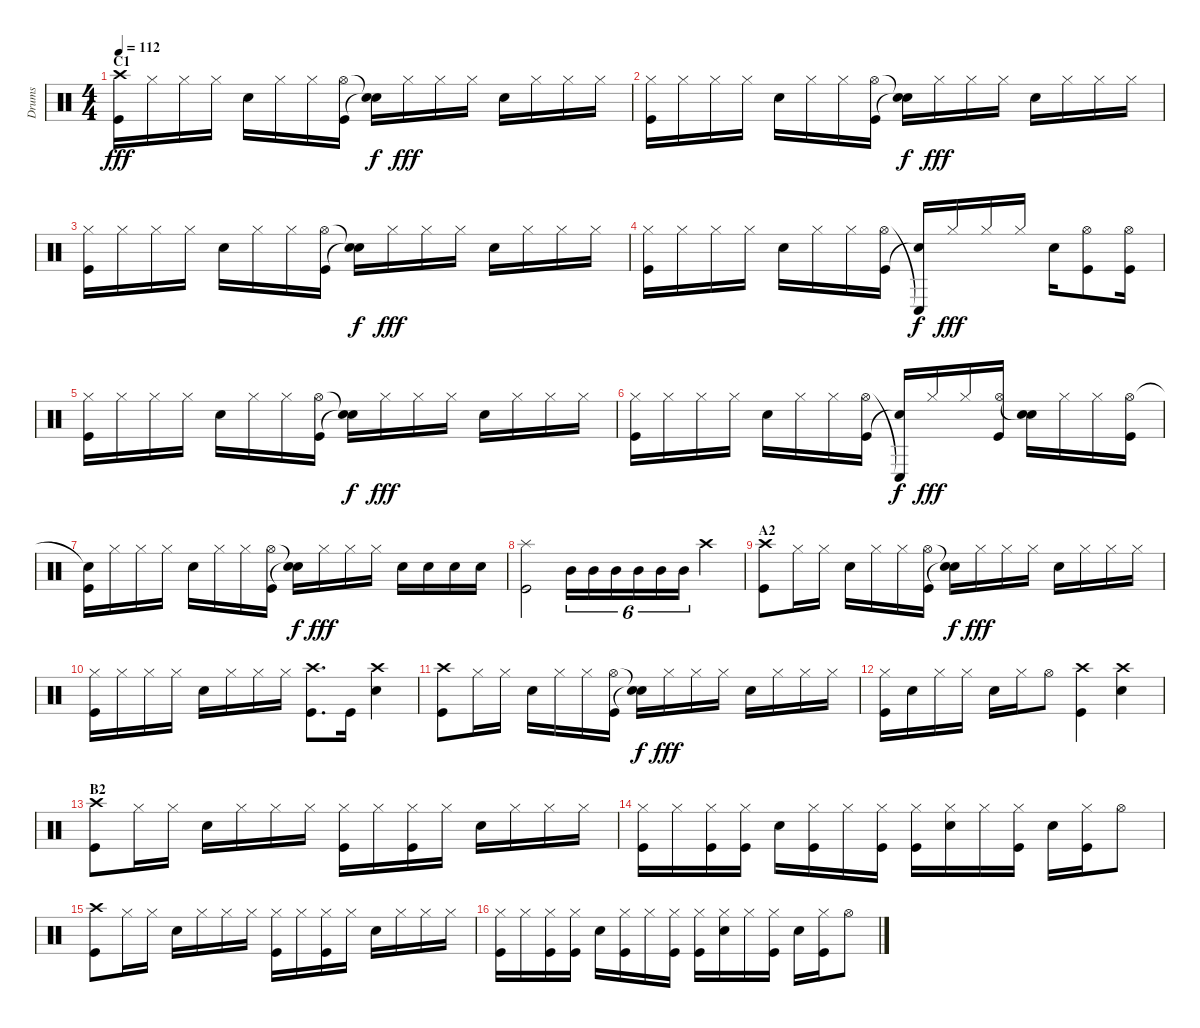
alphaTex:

\track ("Drums" "Drums") {instrument percussion}
\staff {score}
\articulation defaults
\ts (4 4)
\section ("" "C1")
\tempo 112
\clef neutral
\ks c
("Crash high (hit)" "Kick (hit)").16{dy fff} "Hi-Hat (closed)".16 "Hi-Hat (closed)".16 "Hi-Hat (closed)".16 "Snare (hit) 2".16 "Hi-Hat (closed)".16 "Hi-Hat (closed)".16 ("Hi-Hat (open)" "Kick (hit)").16 ("Snare (hit)"{t} "Snare (hit)"{t}).16{dy f} "Hi-Hat (closed)".16{dy fff} "Hi-Hat (closed)".16 "Hi-Hat (closed)".16 "Snare (hit) 2".16 "Hi-Hat (closed)".16 "Hi-Hat (closed)".16 "Hi-Hat (closed)".16 |
("Hi-Hat (closed)" "Kick (hit)").16 "Hi-Hat (closed)".16 "Hi-Hat (closed)".16 "Hi-Hat (closed)".16 "Snare (hit) 2".16 "Hi-Hat (closed)".16 "Hi-Hat (closed)".16 ("Hi-Hat (open)" "Kick (hit)").16 ("Snare (hit)"{t} "Snare (hit)"{t}).16{dy f} "Hi-Hat (closed)".16{dy fff} "Hi-Hat (closed)".16 "Hi-Hat (closed)".16 "Snare (hit) 2".16 "Hi-Hat (closed)".16 "Hi-Hat (closed)".16 "Hi-Hat (closed)".16 |
("Hi-Hat (closed)" "Kick (hit)").16 "Hi-Hat (closed)".16 "Hi-Hat (closed)".16 "Hi-Hat (closed)".16 "Snare (hit) 2".16 "Hi-Hat (closed)".16 "Hi-Hat (closed)".16 ("Hi-Hat (open)" "Kick (hit)").16 ("Snare (hit)"{t} "Snare (hit)"{t}).16{dy f} "Hi-Hat (closed)".16{dy fff} "Hi-Hat (closed)".16 "Hi-Hat (closed)".16 "Snare (hit) 2".16 "Hi-Hat (closed)".16 "Hi-Hat (closed)".16 "Hi-Hat (closed)".16 |
("Hi-Hat (closed)" "Kick (hit)").16 "Hi-Hat (closed)".16 "Hi-Hat (closed)".16 "Hi-Hat (closed)".16 "Snare (hit) 2".16 "Hi-Hat (closed)".16 "Hi-Hat (closed)".16 ("Hi-Hat (open)" "Kick (hit)").16 ("Conga low (hit)"{t} "Snare (hit)"{t}).16{dy f} "Hi-Hat (closed)".16{dy fff} "Hi-Hat (closed)".16 "Hi-Hat (closed)".16 "Snare (hit) 2".16 ("Hi-Hat (open)" "Kick (hit)").8 ("Hi-Hat (open)" "Kick (hit)").16 |
("Hi-Hat (closed)" "Kick (hit)").16 "Hi-Hat (closed)".16 "Hi-Hat (closed)".16 "Hi-Hat (closed)".16 "Snare (hit) 2".16 "Hi-Hat (closed)".16 "Hi-Hat (closed)".16 ("Hi-Hat (open)" "Kick (hit)").16 ("Snare (hit)"{t} "Snare (hit)"{t}).16{dy f} "Hi-Hat (closed)".16{dy fff} "Hi-Hat (closed)".16 "Hi-Hat (closed)".16 "Snare (hit) 2".16 "Hi-Hat (closed)".16 "Hi-Hat (closed)".16 "Hi-Hat (closed)".16 |
("Hi-Hat (closed)" "Kick (hit)").16 "Hi-Hat (closed)".16 "Hi-Hat (closed)".16 "Hi-Hat (closed)".16 "Snare (hit) 2".16 "Hi-Hat (closed)".16 "Hi-Hat (closed)".16 ("Hi-Hat (open)" "Kick (hit)").16 ("Conga low (hit)"{t} "Snare (hit)"{t}).16{dy f} "Hi-Hat (closed)".16{dy fff} "Hi-Hat (closed)".16 ("Hi-Hat (open)" "Kick (hit)").16 ("Snare (hit)"{t} "Snare (hit) 2").16 "Hi-Hat (closed)".16 "Hi-Hat (closed)".16 ("Hi-Hat (open)" "Kick (hit)").16 |
("Snare (hit)"{t} "Kick (hit)").16 "Hi-Hat (closed)".16 "Hi-Hat (closed)".16 "Hi-Hat (closed)".16 "Snare (hit) 2".16 "Hi-Hat (closed)".16 "Hi-Hat (closed)".16 ("Hi-Hat (open)" "Kick (hit)").16 ("Snare (hit)"{t} "Snare (hit)"{t}).16{dy f} "Hi-Hat (closed)".16{dy fff} "Hi-Hat (closed)".16 "Hi-Hat (closed)".16 "Snare (hit) 2".16 "Snare (hit) 2".16 "Snare (hit) 2".16 "Snare (hit) 2".16 |
("Splash (hit)" "Kick (hit)").2 "Mid Tom (hit)".16{tu (6 4)} "Mid Tom (hit)".16{tu (6 4)} "Mid Tom (hit)".16{tu (6 4)} "Mid Tom (hit)".16{tu (6 4)} "Mid Tom (hit)".16{tu (6 4)} "Mid Tom (hit)".16{tu (6 4)} "Crash high (hit)".4 |
\section ("" "A2")
("Crash high (hit)" "Kick (hit)").8 "Hi-Hat (closed)".16 "Hi-Hat (closed)".16 "Snare (hit) 2".16 "Hi-Hat (closed)".16 "Hi-Hat (closed)".16 ("Hi-Hat (open)" "Kick (hit)").16 ("Snare (hit)"{t} "Snare (hit)"{t}).16{dy f} "Hi-Hat (closed)".16{dy fff} "Hi-Hat (closed)".16 "Hi-Hat (closed)".16 "Snare (hit) 2".16 "Hi-Hat (closed)".16 "Hi-Hat (closed)".16 "Hi-Hat (closed)".16 |
("Hi-Hat (closed)" "Kick (hit)").16 "Hi-Hat (closed)".16 "Hi-Hat (closed)".16 "Hi-Hat (closed)".16 "Snare (hit) 2".16 "Hi-Hat (closed)".16 "Hi-Hat (closed)".16 "Hi-Hat (closed)".16 ("Crash high (hit)" "Kick (hit)").8{d} "Kick (hit)".16 ("Crash high (hit)" "Snare (hit) 2").4 |
("Crash high (hit)" "Kick (hit)").8 "Hi-Hat (closed)".16 "Hi-Hat (closed)".16 "Snare (hit) 2".16 "Hi-Hat (closed)".16 "Hi-Hat (closed)".16 ("Hi-Hat (open)" "Kick (hit)").16 ("Snare (hit)"{t} "Snare (hit)"{t}).16{dy f} "Hi-Hat (closed)".16{dy fff} "Hi-Hat (closed)".16 "Hi-Hat (closed)".16 "Snare (hit) 2".16 "Hi-Hat (closed)".16 "Hi-Hat (closed)".16 "Hi-Hat (closed)".16 |
("Hi-Hat (closed)" "Kick (hit)").16 "Snare (hit) 2".16 "Hi-Hat (closed)".16 "Hi-Hat (closed)".16 "Snare (hit) 2".16 "Hi-Hat (closed)".16 "Hi-Hat (open)".8 ("Crash high (hit)" "Kick (hit)").4 ("Crash high (hit)" "Snare (hit) 2").4 |
\section ("" "B2")
("Crash high (hit)" "Kick (hit)").8 "Hi-Hat (closed)".16 "Hi-Hat (closed)".16 "Snare (hit) 2".16 "Hi-Hat (closed)".16 "Hi-Hat (closed)".16 "Hi-Hat (closed)".16 ("Hi-Hat (closed)" "Kick (hit)").16 "Hi-Hat (closed)".16 ("Hi-Hat (closed)" "Kick (hit)").16 "Hi-Hat (closed)".16 "Snare (hit) 2".16 "Hi-Hat (closed)".16 "Hi-Hat (closed)".16 "Hi-Hat (closed)".16 |
("Hi-Hat (closed)" "Kick (hit)").16 "Hi-Hat (closed)".16 ("Hi-Hat (closed)" "Kick (hit)").16 ("Hi-Hat (closed)" "Kick (hit)").16 "Snare (hit) 2".16 ("Hi-Hat (closed)" "Kick (hit)").16 "Hi-Hat (closed)".16 ("Hi-Hat (closed)" "Kick (hit)").16 ("Hi-Hat (closed)" "Kick (hit)").16 ("Hi-Hat (closed)" "Snare (hit) 2").16 "Hi-Hat (closed)".16 ("Hi-Hat (closed)" "Kick (hit)").16 "Snare (hit) 2".16 ("Hi-Hat (closed)" "Kick (hit)").16 "Hi-Hat (open)".8 |
("Crash high (hit)" "Kick (hit)").8 "Hi-Hat (closed)".16 "Hi-Hat (closed)".16 "Snare (hit) 2".16 "Hi-Hat (closed)".16 "Hi-Hat (closed)".16 "Hi-Hat (closed)".16 ("Hi-Hat (closed)" "Kick (hit)").16 "Hi-Hat (closed)".16 ("Hi-Hat (closed)" "Kick (hit)").16 "Hi-Hat (closed)".16 "Snare (hit) 2".16 "Hi-Hat (closed)".16 "Hi-Hat (closed)".16 "Hi-Hat (closed)".16 |
("Hi-Hat (closed)" "Kick (hit)").16 "Hi-Hat (closed)".16 ("Hi-Hat (closed)" "Kick (hit)").16 ("Hi-Hat (closed)" "Kick (hit)").16 "Snare (hit) 2".16 ("Hi-Hat (closed)" "Kick (hit)").16 "Hi-Hat (closed)".16 ("Hi-Hat (closed)" "Kick (hit)").16 ("Hi-Hat (closed)" "Kick (hit)").16 ("Hi-Hat (closed)" "Snare (hit) 2").16 "Hi-Hat (closed)".16 ("Hi-Hat (closed)" "Kick (hit)").16 "Snare (hit) 2".16 ("Hi-Hat (closed)" "Kick (hit)").16 "Hi-Hat (open)".8
